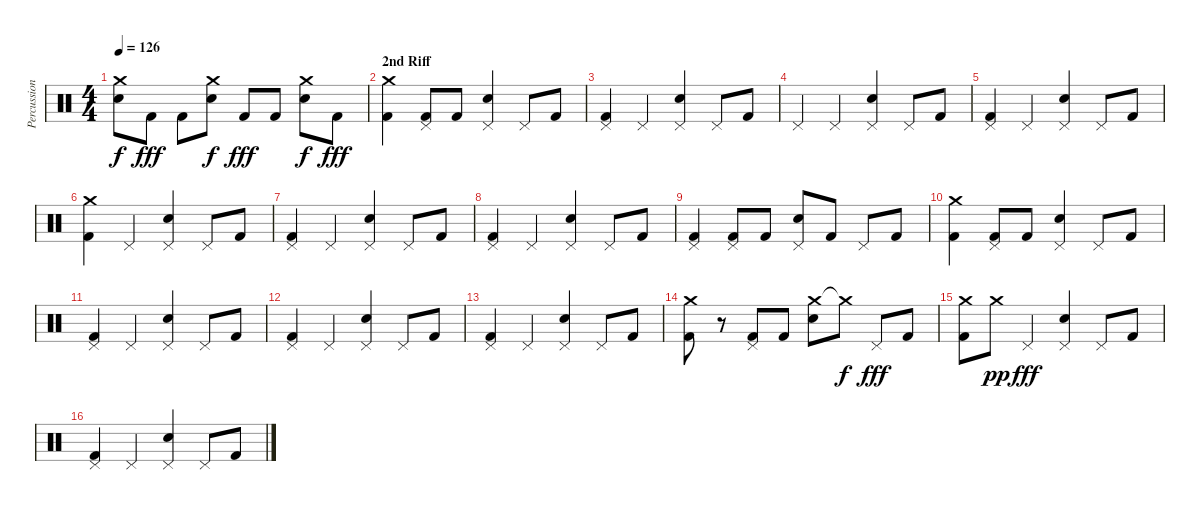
\track ("Percussion" "Percussion") {instrument percussion}
\staff {score}
\articulation defaults
\ts (4 4)
\tempo 126
\clef neutral
\ks c
("Crash medium (hit)" "Electric Snare (hit)").8{dy f} "Kick (hit) 2".8{dy fff} "Kick (hit) 2".8 ("Crash medium (hit)" "Electric Snare (hit)").8{dy f} "Kick (hit) 2".8{dy fff} "Kick (hit) 2".8 ("Crash medium (hit)" "Electric Snare (hit)").8{dy f} "Kick (hit) 2".8{dy fff} |
\section ("" "2nd Riff")
("Crash medium (hit)" "Kick (hit) 2").4 ("Pedal Hi-Hat (hit)" "Kick (hit) 2").8 "Kick (hit) 2".8 ("Pedal Hi-Hat (hit)" "Electric Snare (hit)").4 "Pedal Hi-Hat (hit)".8 "Kick (hit) 2".8 |
("Pedal Hi-Hat (hit)" "Kick (hit) 2").4 "Pedal Hi-Hat (hit)".4 ("Pedal Hi-Hat (hit)" "Electric Snare (hit)").4 "Pedal Hi-Hat (hit)".8 "Kick (hit) 2".8 |
"Pedal Hi-Hat (hit)".4 "Pedal Hi-Hat (hit)".4 ("Pedal Hi-Hat (hit)" "Electric Snare (hit)").4 "Pedal Hi-Hat (hit)".8 "Kick (hit) 2".8 |
("Pedal Hi-Hat (hit)" "Kick (hit) 2").4 "Pedal Hi-Hat (hit)".4 ("Pedal Hi-Hat (hit)" "Electric Snare (hit)").4 "Pedal Hi-Hat (hit)".8 "Kick (hit) 2".8 |
("Crash medium (hit)" "Kick (hit) 2").4 "Pedal Hi-Hat (hit)".4 ("Pedal Hi-Hat (hit)" "Electric Snare (hit)").4 "Pedal Hi-Hat (hit)".8 "Kick (hit) 2".8 |
("Pedal Hi-Hat (hit)" "Kick (hit) 2").4 "Pedal Hi-Hat (hit)".4 ("Pedal Hi-Hat (hit)" "Electric Snare (hit)").4 "Pedal Hi-Hat (hit)".8 "Kick (hit) 2".8 |
("Pedal Hi-Hat (hit)" "Kick (hit) 2").4 "Pedal Hi-Hat (hit)".4 ("Pedal Hi-Hat (hit)" "Electric Snare (hit)").4 "Pedal Hi-Hat (hit)".8 "Kick (hit) 2".8 |
("Pedal Hi-Hat (hit)" "Kick (hit) 2").4 ("Pedal Hi-Hat (hit)" "Kick (hit) 2").8 "Kick (hit) 2".8 ("Pedal Hi-Hat (hit)" "Electric Snare (hit)").8 "Kick (hit) 2".8 "Pedal Hi-Hat (hit)".8 "Kick (hit) 2".8 |
("Crash medium (hit)" "Kick (hit) 2").4 ("Pedal Hi-Hat (hit)" "Kick (hit) 2").8 "Kick (hit) 2".8 ("Pedal Hi-Hat (hit)" "Electric Snare (hit)").4 "Pedal Hi-Hat (hit)".8 "Kick (hit) 2".8 |
("Pedal Hi-Hat (hit)" "Kick (hit) 2").4 "Pedal Hi-Hat (hit)".4 ("Pedal Hi-Hat (hit)" "Electric Snare (hit)").4 "Pedal Hi-Hat (hit)".8 "Kick (hit) 2".8 |
("Pedal Hi-Hat (hit)" "Kick (hit) 2").4 "Pedal Hi-Hat (hit)".4 ("Pedal Hi-Hat (hit)" "Electric Snare (hit)").4 "Pedal Hi-Hat (hit)".8 "Kick (hit) 2".8 |
("Pedal Hi-Hat (hit)" "Kick (hit) 2").4 "Pedal Hi-Hat (hit)".4 ("Pedal Hi-Hat (hit)" "Electric Snare (hit)").4 "Pedal Hi-Hat (hit)".8 "Kick (hit) 2".8 |
("Crash medium (hit)" "Kick (hit) 2").8 r.8 ("Pedal Hi-Hat (hit)" "Kick (hit) 2").8 "Kick (hit) 2".8 ("Crash medium (hit)" "Electric Snare (hit)").8 "Crash medium (hit)"{t}.8{dy f} "Pedal Hi-Hat (hit)".8{dy fff} "Kick (hit) 2".8 |
("Crash medium (hit)" "Kick (hit) 2").8 "Crash medium (hit)".8{dy pp} "Pedal Hi-Hat (hit)".4{dy fff} ("Pedal Hi-Hat (hit)" "Electric Snare (hit)").4 "Pedal Hi-Hat (hit)".8 "Kick (hit) 2".8 |
("Pedal Hi-Hat (hit)" "Kick (hit) 2").4 "Pedal Hi-Hat (hit)".4 ("Pedal Hi-Hat (hit)" "Electric Snare (hit)").4 "Pedal Hi-Hat (hit)".8 "Kick (hit) 2".8
